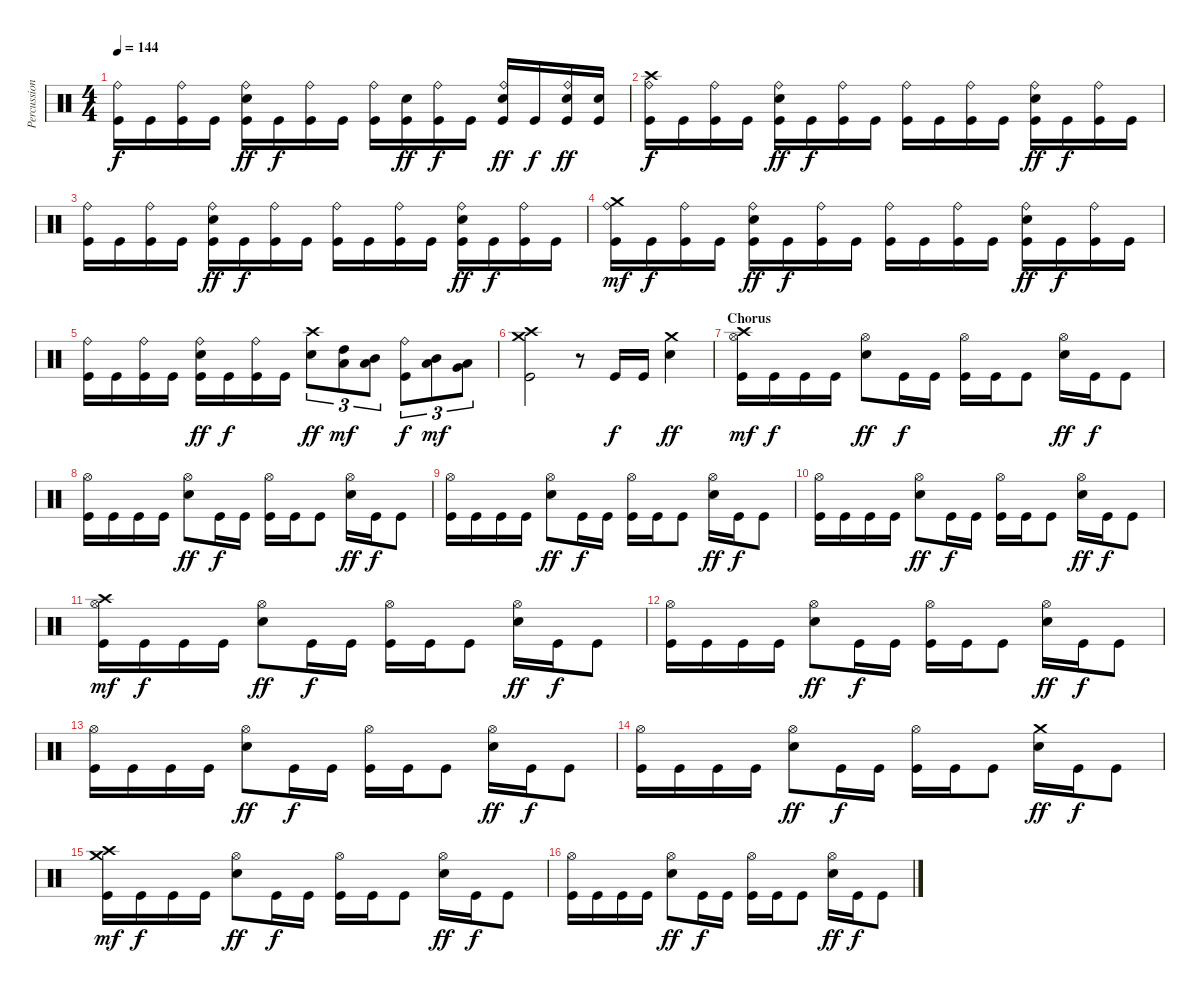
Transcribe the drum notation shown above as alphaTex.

\track ("Percussions" "Percussion") {instrument percussion}
\staff {score}
\articulation defaults
\ts (4 4)
\tempo 144
\clef neutral
\ks c
("Kick (hit)" "Ride (bell)").16{dy f} "Kick (hit)".16 ("Kick (hit)" "Ride (bell)").16 "Kick (hit)".16 ("Kick (hit)" "Electric Snare (hit)" "Ride (bell)").16{dy ff} "Kick (hit)".16{dy f} ("Kick (hit)" "Ride (bell)").16 "Kick (hit)".16 ("Kick (hit)" "Ride (bell)").16 ("Kick (hit)" "Electric Snare (hit)").16{dy ff} ("Kick (hit)" "Ride (bell)").16{dy f} "Kick (hit)".16 ("Kick (hit)" "Electric Snare (hit)" "Ride (bell)").16{dy ff} "Kick (hit)".16{dy f} ("Kick (hit)" "Electric Snare (hit)" "Ride (bell)").16{dy ff} ("Kick (hit)" "Electric Snare (hit)").16 |
("Kick (hit)" "Ride (bell)" "Crash high (hit)").16{dy f} "Kick (hit)".16 ("Kick (hit)" "Ride (bell)").16 "Kick (hit)".16 ("Kick (hit)" "Electric Snare (hit)" "Ride (bell)").16{dy ff} "Kick (hit)".16{dy f} ("Kick (hit)" "Ride (bell)").16 "Kick (hit)".16 ("Kick (hit)" "Ride (bell)").16 "Kick (hit)".16 ("Kick (hit)" "Ride (bell)").16 "Kick (hit)".16 ("Kick (hit)" "Electric Snare (hit)" "Ride (bell)").16{dy ff} "Kick (hit)".16{dy f} ("Kick (hit)" "Ride (bell)").16 "Kick (hit)".16 |
("Kick (hit)" "Ride (bell)").16 "Kick (hit)".16 ("Kick (hit)" "Ride (bell)").16 "Kick (hit)".16 ("Kick (hit)" "Electric Snare (hit)" "Ride (bell)").16{dy ff} "Kick (hit)".16{dy f} ("Kick (hit)" "Ride (bell)").16 "Kick (hit)".16 ("Kick (hit)" "Ride (bell)").16 "Kick (hit)".16 ("Kick (hit)" "Ride (bell)").16 "Kick (hit)".16 ("Kick (hit)" "Electric Snare (hit)" "Ride (bell)").16{dy ff} "Kick (hit)".16{dy f} ("Kick (hit)" "Ride (bell)").16 "Kick (hit)".16 |
("Kick (hit)" "Ride (bell)" "Crash medium (hit)").16{dy mf} "Kick (hit)".16{dy f} ("Kick (hit)" "Ride (bell)").16 "Kick (hit)".16 ("Kick (hit)" "Electric Snare (hit)" "Ride (bell)").16{dy ff} "Kick (hit)".16{dy f} ("Kick (hit)" "Ride (bell)").16 "Kick (hit)".16 ("Kick (hit)" "Ride (bell)").16 "Kick (hit)".16 ("Kick (hit)" "Ride (bell)").16 "Kick (hit)".16 ("Kick (hit)" "Electric Snare (hit)" "Ride (bell)").16{dy ff} "Kick (hit)".16{dy f} ("Kick (hit)" "Ride (bell)").16 "Kick (hit)".16 |
("Kick (hit)" "Ride (bell)").16 "Kick (hit)".16 ("Kick (hit)" "Ride (bell)").16 "Kick (hit)".16 ("Kick (hit)" "Electric Snare (hit)" "Ride (bell)").16{dy ff} "Kick (hit)".16{dy f} ("Kick (hit)" "Ride (bell)").16 "Kick (hit)".16 ("Electric Snare (hit)" "Crash high (hit)").8{tu (3 2) dy ff} ("Low Tom (hit)" "High Tom (hit)").8{tu (3 2) dy mf} ("Low Tom (hit)" "Mid Tom (hit)").8{tu (3 2)} ("Kick (hit)" "Ride (bell)").8{tu (3 2) dy f} ("Low Tom (hit)" "Mid Tom (hit)").8{tu (3 2) dy mf} ("Very Low Tom (hit)" "Low Tom (hit)").8{tu (3 2)} |
("Kick (hit)" "Crash high (hit)" "Crash medium (hit)").2 r.8 "Kick (hit)".16{dy f} "Kick (hit)".16 ("Electric Snare (hit)" "Crash medium (hit)").4{dy ff} |
\section ("" "Chorus")
("Kick (hit)" "Hi-Hat (open)" "Crash high (hit)").16{dy mf} "Kick (hit)".16{dy f} "Kick (hit)".16 "Kick (hit)".16 ("Electric Snare (hit)" "Hi-Hat (open)").8{dy ff} "Kick (hit)".16{dy f} "Kick (hit)".16 ("Kick (hit)" "Hi-Hat (open)").16 "Kick (hit)".16 "Kick (hit)".8 ("Electric Snare (hit)" "Hi-Hat (open)").16{dy ff} "Kick (hit)".16{dy f} "Kick (hit)".8 |
("Kick (hit)" "Hi-Hat (open)").16 "Kick (hit)".16 "Kick (hit)".16 "Kick (hit)".16 ("Electric Snare (hit)" "Hi-Hat (open)").8{dy ff} "Kick (hit)".16{dy f} "Kick (hit)".16 ("Kick (hit)" "Hi-Hat (open)").16 "Kick (hit)".16 "Kick (hit)".8 ("Electric Snare (hit)" "Hi-Hat (open)").16{dy ff} "Kick (hit)".16{dy f} "Kick (hit)".8 |
("Kick (hit)" "Hi-Hat (open)").16 "Kick (hit)".16 "Kick (hit)".16 "Kick (hit)".16 ("Electric Snare (hit)" "Hi-Hat (open)").8{dy ff} "Kick (hit)".16{dy f} "Kick (hit)".16 ("Kick (hit)" "Hi-Hat (open)").16 "Kick (hit)".16 "Kick (hit)".8 ("Electric Snare (hit)" "Hi-Hat (open)").16{dy ff} "Kick (hit)".16{dy f} "Kick (hit)".8 |
("Kick (hit)" "Hi-Hat (open)").16 "Kick (hit)".16 "Kick (hit)".16 "Kick (hit)".16 ("Electric Snare (hit)" "Hi-Hat (open)").8{dy ff} "Kick (hit)".16{dy f} "Kick (hit)".16 ("Kick (hit)" "Hi-Hat (open)").16 "Kick (hit)".16 "Kick (hit)".8 ("Electric Snare (hit)" "Hi-Hat (open)").16{dy ff} "Kick (hit)".16{dy f} "Kick (hit)".8 |
("Kick (hit)" "Hi-Hat (open)" "Crash high (hit)").16{dy mf} "Kick (hit)".16{dy f} "Kick (hit)".16 "Kick (hit)".16 ("Electric Snare (hit)" "Hi-Hat (open)").8{dy ff} "Kick (hit)".16{dy f} "Kick (hit)".16 ("Kick (hit)" "Hi-Hat (open)").16 "Kick (hit)".16 "Kick (hit)".8 ("Electric Snare (hit)" "Hi-Hat (open)").16{dy ff} "Kick (hit)".16{dy f} "Kick (hit)".8 |
("Kick (hit)" "Hi-Hat (open)").16 "Kick (hit)".16 "Kick (hit)".16 "Kick (hit)".16 ("Electric Snare (hit)" "Hi-Hat (open)").8{dy ff} "Kick (hit)".16{dy f} "Kick (hit)".16 ("Kick (hit)" "Hi-Hat (open)").16 "Kick (hit)".16 "Kick (hit)".8 ("Electric Snare (hit)" "Hi-Hat (open)").16{dy ff} "Kick (hit)".16{dy f} "Kick (hit)".8 |
("Kick (hit)" "Hi-Hat (open)").16 "Kick (hit)".16 "Kick (hit)".16 "Kick (hit)".16 ("Electric Snare (hit)" "Hi-Hat (open)").8{dy ff} "Kick (hit)".16{dy f} "Kick (hit)".16 ("Kick (hit)" "Hi-Hat (open)").16 "Kick (hit)".16 "Kick (hit)".8 ("Electric Snare (hit)" "Hi-Hat (open)").16{dy ff} "Kick (hit)".16{dy f} "Kick (hit)".8 |
("Kick (hit)" "Hi-Hat (open)").16 "Kick (hit)".16 "Kick (hit)".16 "Kick (hit)".16 ("Electric Snare (hit)" "Hi-Hat (open)").8{dy ff} "Kick (hit)".16{dy f} "Kick (hit)".16 ("Kick (hit)" "Hi-Hat (open)").16 "Kick (hit)".16 "Kick (hit)".8 ("Electric Snare (hit)" "Crash medium (hit)").16{dy ff} "Kick (hit)".16{dy f} "Kick (hit)".8 |
("Kick (hit)" "Crash medium (hit)" "Crash high (hit)").16{dy mf} "Kick (hit)".16{dy f} "Kick (hit)".16 "Kick (hit)".16 ("Electric Snare (hit)" "Hi-Hat (open)").8{dy ff} "Kick (hit)".16{dy f} "Kick (hit)".16 ("Kick (hit)" "Hi-Hat (open)").16 "Kick (hit)".16 "Kick (hit)".8 ("Electric Snare (hit)" "Hi-Hat (open)").16{dy ff} "Kick (hit)".16{dy f} "Kick (hit)".8 |
("Kick (hit)" "Hi-Hat (open)").16 "Kick (hit)".16 "Kick (hit)".16 "Kick (hit)".16 ("Electric Snare (hit)" "Hi-Hat (open)").8{dy ff} "Kick (hit)".16{dy f} "Kick (hit)".16 ("Kick (hit)" "Hi-Hat (open)").16 "Kick (hit)".16 "Kick (hit)".8 ("Electric Snare (hit)" "Hi-Hat (open)").16{dy ff} "Kick (hit)".16{dy f} "Kick (hit)".8
